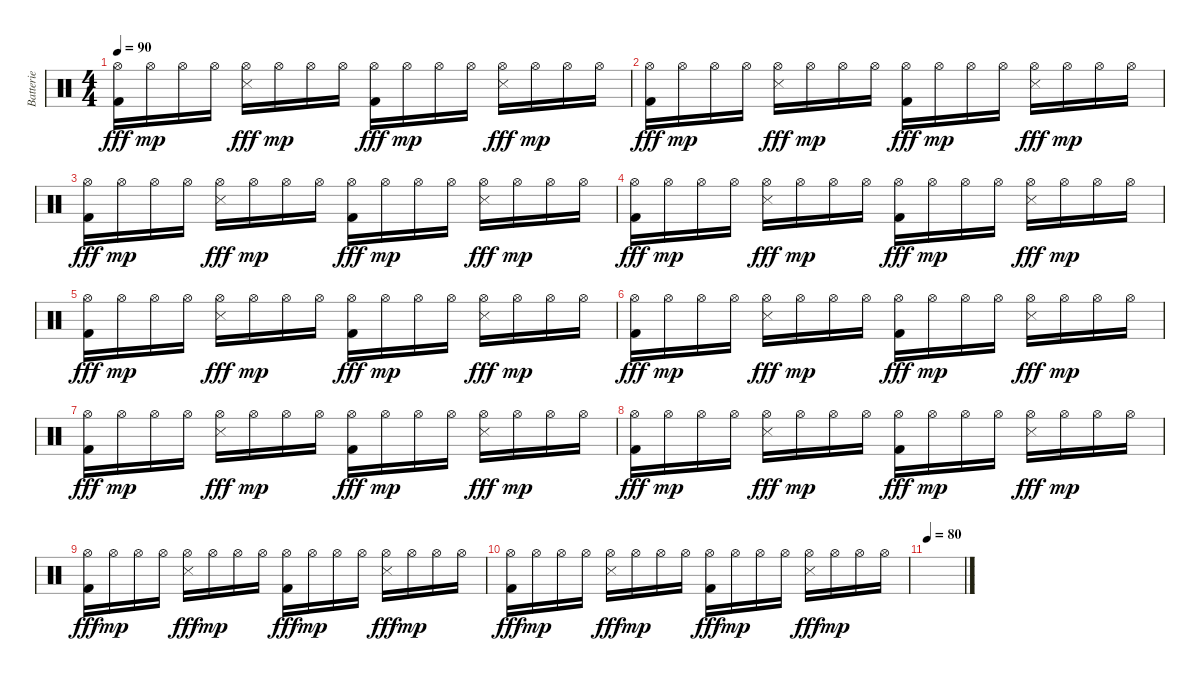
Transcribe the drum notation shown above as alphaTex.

\track ("Batterie" "Batterie") {instrument percussion}
\staff {score}
\articulation defaults
\ts (4 4)
\tempo 90
\clef neutral
\ks c
("Hi-Hat (open)" "Kick (hit) 2").16{dy fff} "Hi-Hat (open)".16{dy mp} "Hi-Hat (open)".16 "Hi-Hat (open)".16 ("Hi-Hat (open)" "Snare (side stick) 3").16{dy fff} "Hi-Hat (open)".16{dy mp} "Hi-Hat (open)".16 "Hi-Hat (open)".16 ("Hi-Hat (open)" "Kick (hit) 2").16{dy fff} "Hi-Hat (open)".16{dy mp} "Hi-Hat (open)".16 "Hi-Hat (open)".16 ("Hi-Hat (open)" "Snare (side stick) 3").16{dy fff} "Hi-Hat (open)".16{dy mp} "Hi-Hat (open)".16 "Hi-Hat (open)".16 |
("Hi-Hat (open)" "Kick (hit) 2").16{dy fff} "Hi-Hat (open)".16{dy mp} "Hi-Hat (open)".16 "Hi-Hat (open)".16 ("Hi-Hat (open)" "Snare (side stick) 3").16{dy fff} "Hi-Hat (open)".16{dy mp} "Hi-Hat (open)".16 "Hi-Hat (open)".16 ("Hi-Hat (open)" "Kick (hit) 2").16{dy fff} "Hi-Hat (open)".16{dy mp} "Hi-Hat (open)".16 "Hi-Hat (open)".16 ("Hi-Hat (open)" "Snare (side stick) 3").16{dy fff} "Hi-Hat (open)".16{dy mp} "Hi-Hat (open)".16 "Hi-Hat (open)".16 |
("Hi-Hat (open)" "Kick (hit) 2").16{dy fff} "Hi-Hat (open)".16{dy mp} "Hi-Hat (open)".16 "Hi-Hat (open)".16 ("Hi-Hat (open)" "Snare (side stick) 3").16{dy fff} "Hi-Hat (open)".16{dy mp} "Hi-Hat (open)".16 "Hi-Hat (open)".16 ("Hi-Hat (open)" "Kick (hit) 2").16{dy fff} "Hi-Hat (open)".16{dy mp} "Hi-Hat (open)".16 "Hi-Hat (open)".16 ("Hi-Hat (open)" "Snare (side stick) 3").16{dy fff} "Hi-Hat (open)".16{dy mp} "Hi-Hat (open)".16 "Hi-Hat (open)".16 |
("Hi-Hat (open)" "Kick (hit) 2").16{dy fff} "Hi-Hat (open)".16{dy mp} "Hi-Hat (open)".16 "Hi-Hat (open)".16 ("Hi-Hat (open)" "Snare (side stick) 3").16{dy fff} "Hi-Hat (open)".16{dy mp} "Hi-Hat (open)".16 "Hi-Hat (open)".16 ("Hi-Hat (open)" "Kick (hit) 2").16{dy fff} "Hi-Hat (open)".16{dy mp} "Hi-Hat (open)".16 "Hi-Hat (open)".16 ("Hi-Hat (open)" "Snare (side stick) 3").16{dy fff} "Hi-Hat (open)".16{dy mp} "Hi-Hat (open)".16 "Hi-Hat (open)".16 |
("Hi-Hat (open)" "Kick (hit) 2").16{dy fff} "Hi-Hat (open)".16{dy mp} "Hi-Hat (open)".16 "Hi-Hat (open)".16 ("Hi-Hat (open)" "Snare (side stick) 3").16{dy fff} "Hi-Hat (open)".16{dy mp} "Hi-Hat (open)".16 "Hi-Hat (open)".16 ("Hi-Hat (open)" "Kick (hit) 2").16{dy fff} "Hi-Hat (open)".16{dy mp} "Hi-Hat (open)".16 "Hi-Hat (open)".16 ("Hi-Hat (open)" "Snare (side stick) 3").16{dy fff} "Hi-Hat (open)".16{dy mp} "Hi-Hat (open)".16 "Hi-Hat (open)".16 |
("Hi-Hat (open)" "Kick (hit) 2").16{dy fff} "Hi-Hat (open)".16{dy mp} "Hi-Hat (open)".16 "Hi-Hat (open)".16 ("Hi-Hat (open)" "Snare (side stick) 3").16{dy fff} "Hi-Hat (open)".16{dy mp} "Hi-Hat (open)".16 "Hi-Hat (open)".16 ("Hi-Hat (open)" "Kick (hit) 2").16{dy fff} "Hi-Hat (open)".16{dy mp} "Hi-Hat (open)".16 "Hi-Hat (open)".16 ("Hi-Hat (open)" "Snare (side stick) 3").16{dy fff} "Hi-Hat (open)".16{dy mp} "Hi-Hat (open)".16 "Hi-Hat (open)".16 |
("Hi-Hat (open)" "Kick (hit) 2").16{dy fff} "Hi-Hat (open)".16{dy mp} "Hi-Hat (open)".16 "Hi-Hat (open)".16 ("Hi-Hat (open)" "Snare (side stick) 3").16{dy fff} "Hi-Hat (open)".16{dy mp} "Hi-Hat (open)".16 "Hi-Hat (open)".16 ("Hi-Hat (open)" "Kick (hit) 2").16{dy fff} "Hi-Hat (open)".16{dy mp} "Hi-Hat (open)".16 "Hi-Hat (open)".16 ("Hi-Hat (open)" "Snare (side stick) 3").16{dy fff} "Hi-Hat (open)".16{dy mp} "Hi-Hat (open)".16 "Hi-Hat (open)".16 |
("Hi-Hat (open)" "Kick (hit) 2").16{dy fff} "Hi-Hat (open)".16{dy mp} "Hi-Hat (open)".16 "Hi-Hat (open)".16 ("Hi-Hat (open)" "Snare (side stick) 3").16{dy fff} "Hi-Hat (open)".16{dy mp} "Hi-Hat (open)".16 "Hi-Hat (open)".16 ("Hi-Hat (open)" "Kick (hit) 2").16{dy fff} "Hi-Hat (open)".16{dy mp} "Hi-Hat (open)".16 "Hi-Hat (open)".16 ("Hi-Hat (open)" "Snare (side stick) 3").16{dy fff} "Hi-Hat (open)".16{dy mp} "Hi-Hat (open)".16 "Hi-Hat (open)".16 |
("Hi-Hat (open)" "Kick (hit) 2").16{dy fff} "Hi-Hat (open)".16{dy mp} "Hi-Hat (open)".16 "Hi-Hat (open)".16 ("Hi-Hat (open)" "Snare (side stick) 3").16{dy fff} "Hi-Hat (open)".16{dy mp} "Hi-Hat (open)".16 "Hi-Hat (open)".16 ("Hi-Hat (open)" "Kick (hit) 2").16{dy fff} "Hi-Hat (open)".16{dy mp} "Hi-Hat (open)".16 "Hi-Hat (open)".16 ("Hi-Hat (open)" "Snare (side stick) 3").16{dy fff} "Hi-Hat (open)".16{dy mp} "Hi-Hat (open)".16 "Hi-Hat (open)".16 |
("Hi-Hat (open)" "Kick (hit) 2").16{dy fff} "Hi-Hat (open)".16{dy mp} "Hi-Hat (open)".16 "Hi-Hat (open)".16 ("Hi-Hat (open)" "Snare (side stick) 3").16{dy fff} "Hi-Hat (open)".16{dy mp} "Hi-Hat (open)".16 "Hi-Hat (open)".16 ("Hi-Hat (open)" "Kick (hit) 2").16{dy fff} "Hi-Hat (open)".16{dy mp} "Hi-Hat (open)".16 "Hi-Hat (open)".16 ("Hi-Hat (open)" "Snare (side stick) 3").16{dy fff} "Hi-Hat (open)".16{dy mp} "Hi-Hat (open)".16 "Hi-Hat (open)".16 |
\tempo 80
